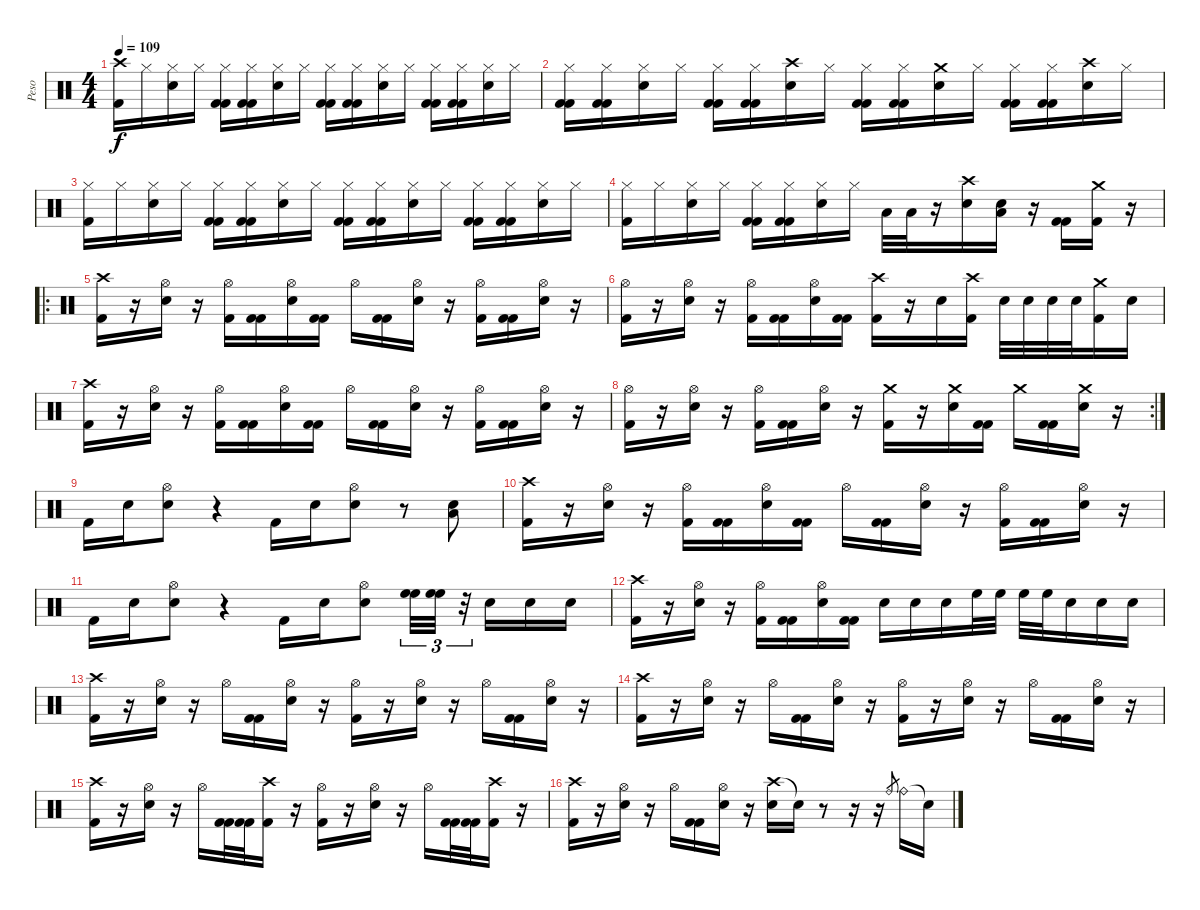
\track ("Peso" "Peso") {instrument percussion}
\staff {score}
\articulation defaults
\ts (4 4)
\tempo 109
\clef neutral
\ks c
("Crash high (hit)" "Kick (hit) 2").16{dy f} "Hi-Hat (closed)".16 ("Hi-Hat (closed)" "Snare (hit) 2").16 "Hi-Hat (closed)".16 ("Hi-Hat (closed)" "Kick (hit) 2" "Kick (hit) 2").16 ("Hi-Hat (closed)" "Kick (hit) 2" "Kick (hit) 2").16 ("Hi-Hat (closed)" "Snare (hit) 2").16 "Hi-Hat (closed)".16 ("Hi-Hat (closed)" "Kick (hit) 2" "Kick (hit) 2").16 ("Hi-Hat (closed)" "Kick (hit) 2" "Kick (hit) 2").16 ("Hi-Hat (closed)" "Snare (hit) 2").16 "Hi-Hat (closed)".16 ("Hi-Hat (closed)" "Kick (hit) 2" "Kick (hit) 2").16 ("Hi-Hat (closed)" "Kick (hit) 2" "Kick (hit) 2").16 ("Hi-Hat (closed)" "Snare (hit) 2").16 "Hi-Hat (closed)".16 |
("Hi-Hat (closed)" "Kick (hit) 2" "Kick (hit) 2").16 ("Hi-Hat (closed)" "Kick (hit) 2" "Kick (hit) 2").16 ("Hi-Hat (closed)" "Snare (hit) 2").16 "Hi-Hat (closed)".16 ("Hi-Hat (closed)" "Kick (hit) 2" "Kick (hit) 2").16 ("Hi-Hat (closed)" "Kick (hit) 2" "Kick (hit) 2").16 ("Crash high (hit)" "Snare (hit) 2").16 "Hi-Hat (closed)".16 ("Hi-Hat (closed)" "Kick (hit) 2" "Kick (hit) 2").16 ("Hi-Hat (closed)" "Kick (hit) 2" "Kick (hit) 2").16 ("Crash medium (hit)" "Snare (hit) 2").16 "Hi-Hat (closed)".16 ("Hi-Hat (closed)" "Kick (hit) 2" "Kick (hit) 2").16 ("Hi-Hat (closed)" "Kick (hit) 2" "Kick (hit) 2").16 ("Crash high (hit)" "Snare (hit) 2").16 "Hi-Hat (closed)".16 |
("Hi-Hat (closed)" "Kick (hit) 2").16 "Hi-Hat (closed)".16 ("Hi-Hat (closed)" "Snare (hit) 2").16 "Hi-Hat (closed)".16 ("Hi-Hat (closed)" "Kick (hit) 2" "Kick (hit) 2").16 ("Hi-Hat (closed)" "Kick (hit) 2" "Kick (hit) 2").16 ("Hi-Hat (closed)" "Snare (hit) 2").16 "Hi-Hat (closed)".16 ("Hi-Hat (closed)" "Kick (hit) 2" "Kick (hit) 2").16 ("Hi-Hat (closed)" "Kick (hit) 2" "Kick (hit) 2").16 ("Hi-Hat (closed)" "Snare (hit) 2").16 "Hi-Hat (closed)".16 ("Hi-Hat (closed)" "Kick (hit) 2" "Kick (hit) 2").16 ("Hi-Hat (closed)" "Kick (hit) 2" "Kick (hit) 2").16 ("Hi-Hat (closed)" "Snare (hit) 2").16 "Hi-Hat (closed)".16 |
("Hi-Hat (closed)" "Kick (hit) 2").16 "Hi-Hat (closed)".16 ("Hi-Hat (closed)" "Snare (hit) 2").16 "Hi-Hat (closed)".16 ("Hi-Hat (closed)" "Kick (hit) 2" "Kick (hit) 2").16 ("Hi-Hat (closed)" "Kick (hit) 2" "Kick (hit) 2").16 ("Hi-Hat (closed)" "Snare (hit) 2").16 "Hi-Hat (closed)".16 "Low Floor Tom (hit)".32 "Low Floor Tom (hit)".32 r.16 ("Crash high (hit)" "Snare (hit) 2").16 ("Low Floor Tom (hit)" "Snare (hit) 2").16 r.16 ("Kick (hit) 2" "Kick (hit) 2").16 ("Crash medium (hit)" "Kick (hit) 2").16 r.16 |
\ro
("Crash high (hit)" "Kick (hit) 2").16 r.16 ("Hi-Hat (open)" "Snare (hit) 2").16 r.16 ("Hi-Hat (open)" "Kick (hit) 2").16 ("Kick (hit) 2" "Kick (hit) 2").16 ("Hi-Hat (open)" "Snare (hit) 2").16 ("Kick (hit) 2" "Kick (hit) 2").16 "Hi-Hat (open)".16 ("Kick (hit) 2" "Kick (hit) 2").16 ("Hi-Hat (open)" "Snare (hit) 2").16 r.16 ("Hi-Hat (open)" "Kick (hit) 2").16 ("Kick (hit) 2" "Kick (hit) 2").16 ("Hi-Hat (open)" "Snare (hit) 2").16 r.16 |
("Hi-Hat (open)" "Kick (hit) 2").16 r.16 ("Hi-Hat (open)" "Snare (hit) 2").16 r.16 ("Hi-Hat (open)" "Kick (hit) 2").16 ("Kick (hit) 2" "Kick (hit) 2").16 ("Hi-Hat (open)" "Snare (hit) 2").16 ("Kick (hit) 2" "Kick (hit) 2").16 ("Crash high (hit)" "Kick (hit) 2").16 r.16 "Snare (hit) 2".16 ("Crash high (hit)" "Kick (hit) 2").16 "Snare (hit) 2".32 "Snare (hit) 2".32 "Snare (hit) 2".32 "Snare (hit) 2".32 ("Crash medium (hit)" "Kick (hit) 2").16 "Snare (hit) 2".16 |
("Crash high (hit)" "Kick (hit) 2").16 r.16 ("Hi-Hat (open)" "Snare (hit) 2").16 r.16 ("Hi-Hat (open)" "Kick (hit) 2").16 ("Kick (hit) 2" "Kick (hit) 2").16 ("Hi-Hat (open)" "Snare (hit) 2").16 ("Kick (hit) 2" "Kick (hit) 2").16 "Hi-Hat (open)".16 ("Kick (hit) 2" "Kick (hit) 2").16 ("Hi-Hat (open)" "Snare (hit) 2").16 r.16 ("Hi-Hat (open)" "Kick (hit) 2").16 ("Kick (hit) 2" "Kick (hit) 2").16 ("Hi-Hat (open)" "Snare (hit) 2").16 r.16 |
\rc 2
("Hi-Hat (open)" "Kick (hit) 2").16 r.16 ("Hi-Hat (open)" "Snare (hit) 2").16 r.16 ("Hi-Hat (open)" "Kick (hit) 2").16 ("Kick (hit) 2" "Kick (hit) 2").16 ("Hi-Hat (open)" "Snare (hit) 2").16 r.16 ("Crash medium (hit)" "Kick (hit) 2").16 r.16 ("Crash medium (hit)" "Snare (hit) 2").16 ("Kick (hit) 2" "Kick (hit) 2").16 "Crash medium (hit)".16 ("Kick (hit) 2" "Kick (hit) 2").16 ("Crash medium (hit)" "Snare (hit) 2").16 r.16 |
"Kick (hit) 2".16 "Snare (hit) 2".16 ("Hi-Hat (open)" "Snare (hit) 2").8 r.4 "Kick (hit) 2".16 "Snare (hit) 2".16 ("Hi-Hat (open)" "Snare (hit) 2").8 r.8 ("Low Floor Tom (hit)" "Snare (hit) 2").8 |
("Crash high (hit)" "Kick (hit) 2").16 r.16 ("Hi-Hat (open)" "Snare (hit) 2").16 r.16 ("Hi-Hat (open)" "Kick (hit) 2").16 ("Kick (hit) 2" "Kick (hit) 2").16 ("Hi-Hat (open)" "Snare (hit) 2").16 ("Kick (hit) 2" "Kick (hit) 2").16 "Hi-Hat (open)".16 ("Kick (hit) 2" "Kick (hit) 2").16 ("Hi-Hat (open)" "Snare (hit) 2").16 r.16 ("Hi-Hat (open)" "Kick (hit) 2").16 ("Kick (hit) 2" "Kick (hit) 2").16 ("Hi-Hat (open)" "Snare (hit) 2").16 r.16 |
"Kick (hit) 2".16 "Snare (hit) 2".16 ("Hi-Hat (open)" "Snare (hit) 2").8 r.4 "Kick (hit) 2".16 "Snare (hit) 2".16 ("Hi-Hat (open)" "Snare (hit) 2").8 ("High Floor Tom (hit)" "High Floor Tom (hit)").32{tu (3 2)} ("High Floor Tom (hit)" "High Floor Tom (hit)").32{tu (3 2)} r.32{tu (3 2)} "Snare (hit) 2".16 "Snare (hit) 2".16 "Snare (hit) 2".16 |
("Crash high (hit)" "Kick (hit) 2").16 r.16 ("Hi-Hat (open)" "Snare (hit) 2").16 r.16 ("Hi-Hat (open)" "Kick (hit) 2").16 ("Kick (hit) 2" "Kick (hit) 2").16 ("Hi-Hat (open)" "Snare (hit) 2").16 ("Kick (hit) 2" "Kick (hit) 2").16 "Snare (hit) 2".16 "Snare (hit) 2".16 "Snare (hit) 2".16 "High Floor Tom (hit)".32 "High Floor Tom (hit)".32 "High Floor Tom (hit)".32 "High Floor Tom (hit)".32 "Snare (hit) 2".16 "Snare (hit) 2".16 "Snare (hit) 2".16 |
("Crash high (hit)" "Kick (hit) 2").16 r.16 ("Hi-Hat (open)" "Snare (hit) 2").16 r.16 "Hi-Hat (open)".16 ("Kick (hit) 2" "Kick (hit) 2").16 ("Hi-Hat (open)" "Snare (hit) 2").16 r.16 ("Hi-Hat (open)" "Kick (hit) 2").16 r.16 ("Hi-Hat (open)" "Snare (hit) 2").16 r.16 "Hi-Hat (open)".16 ("Kick (hit) 2" "Kick (hit) 2").16 ("Hi-Hat (open)" "Snare (hit) 2").16 r.16 |
("Crash high (hit)" "Kick (hit) 2").16 r.16 ("Hi-Hat (open)" "Snare (hit) 2").16 r.16 "Hi-Hat (open)".16 ("Kick (hit) 2" "Kick (hit) 2").16 ("Hi-Hat (open)" "Snare (hit) 2").16 r.16 ("Hi-Hat (open)" "Kick (hit) 2").16 r.16 ("Hi-Hat (open)" "Snare (hit) 2").16 r.16 "Hi-Hat (open)".16 ("Kick (hit) 2" "Kick (hit) 2").16 ("Hi-Hat (open)" "Snare (hit) 2").16 r.16 |
("Crash high (hit)" "Kick (hit) 2").16 r.16 ("Hi-Hat (open)" "Snare (hit) 2").16 r.16 "Hi-Hat (open)".16 ("Kick (hit) 2" "Kick (hit) 2").32 ("Kick (hit) 2" "Kick (hit) 2").32 ("Crash high (hit)" "Kick (hit) 2").16 r.16 ("Hi-Hat (open)" "Kick (hit) 2").16 r.16 ("Hi-Hat (open)" "Snare (hit) 2").16 r.16 "Hi-Hat (open)".16 ("Kick (hit) 2" "Kick (hit) 2").32 ("Kick (hit) 2" "Kick (hit) 2").32 ("Crash high (hit)" "Kick (hit) 2").16 r.16 |
("Crash high (hit)" "Kick (hit) 2").16 r.16 ("Hi-Hat (open)" "Snare (hit) 2").16 r.16 "Hi-Hat (open)".16 ("Kick (hit) 2" "Kick (hit) 2").16 ("Hi-Hat (open)" "Snare (hit) 2").16 r.16 ("Crash high (hit)" "Snare (hit) 2").16 "Snare (hit)"{t}.16 r.8 r.16 r.16 "Ride (bell)".8{gr} "Ride (bell)".16 "Snare (hit)"{t}.16
